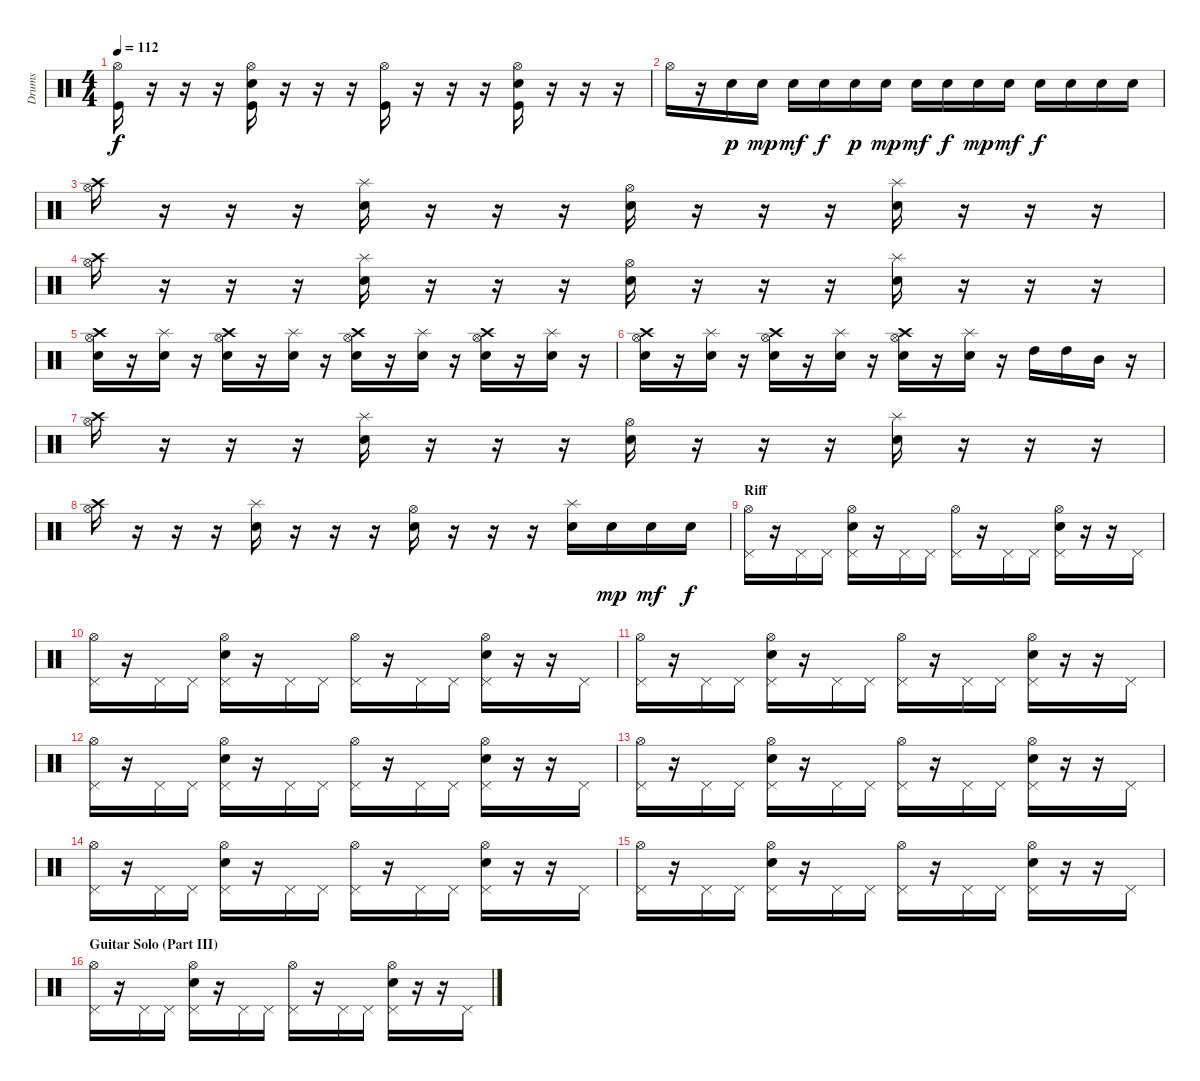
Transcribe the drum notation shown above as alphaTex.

\track ("Drums" "Drums") {instrument percussion}
\staff {score}
\articulation defaults
\ts (4 4)
\tempo 112
\clef neutral
\ks c
("Hi-Hat (open)" "Kick (hit)").16{dy f} r.16 r.16 r.16 ("Hi-Hat (open)" "Electric Snare (hit)" "Kick (hit)").16 r.16 r.16 r.16 ("Hi-Hat (open)" "Kick (hit)").16 r.16 r.16 r.16 ("Hi-Hat (open)" "Electric Snare (hit)" "Kick (hit)").16 r.16 r.16 r.16 |
"Hi-Hat (open)".16 r.16 "Electric Snare (hit)".16{dy p} "Electric Snare (hit)".16{dy mp} "Electric Snare (hit)".16{dy mf} "Electric Snare (hit)".16{dy f} "Electric Snare (hit)".16{dy p} "Electric Snare (hit)".16{dy mp} "Electric Snare (hit)".16{dy mf} "Electric Snare (hit)".16{dy f} "Electric Snare (hit)".16{dy mp} "Electric Snare (hit)".16{dy mf} "Electric Snare (hit)".16{dy f} "Electric Snare (hit)".16 "Electric Snare (hit)".16 "Electric Snare (hit)".16 |
("Hi-Hat (open)" "Crash high (hit)").16 r.16 r.16 r.16 ("Electric Snare (hit)" "Splash (hit)").16 r.16 r.16 r.16 ("Hi-Hat (open)" "Electric Snare (hit)").16 r.16 r.16 r.16 ("Electric Snare (hit)" "Splash (hit)").16 r.16 r.16 r.16 |
("Hi-Hat (open)" "Crash high (hit)").16 r.16 r.16 r.16 ("Electric Snare (hit)" "Splash (hit)").16 r.16 r.16 r.16 ("Hi-Hat (open)" "Electric Snare (hit)").16 r.16 r.16 r.16 ("Electric Snare (hit)" "Splash (hit)").16 r.16 r.16 r.16 |
("Hi-Hat (open)" "Electric Snare (hit)" "Crash high (hit)").16 r.16 ("Electric Snare (hit)" "Splash (hit)").16 r.16 ("Hi-Hat (open)" "Electric Snare (hit)" "Crash high (hit)").16 r.16 ("Electric Snare (hit)" "Splash (hit)").16 r.16 ("Hi-Hat (open)" "Electric Snare (hit)" "Crash high (hit)").16 r.16 ("Electric Snare (hit)" "Splash (hit)").16 r.16 ("Hi-Hat (open)" "Electric Snare (hit)" "Crash high (hit)").16 r.16 ("Electric Snare (hit)" "Splash (hit)").16 r.16 |
("Hi-Hat (open)" "Electric Snare (hit)" "Crash high (hit)").16 r.16 ("Electric Snare (hit)" "Splash (hit)").16 r.16 ("Hi-Hat (open)" "Electric Snare (hit)" "Crash high (hit)").16 r.16 ("Electric Snare (hit)" "Splash (hit)").16 r.16 ("Hi-Hat (open)" "Electric Snare (hit)" "Crash high (hit)").16 r.16 ("Electric Snare (hit)" "Splash (hit)").16 r.16 "High Tom (hit)".16 "High Tom (hit)".16 "Mid Tom (hit)".16 r.16 |
("Hi-Hat (open)" "Crash high (hit)").16 r.16 r.16 r.16 ("Electric Snare (hit)" "Splash (hit)").16 r.16 r.16 r.16 ("Hi-Hat (open)" "Electric Snare (hit)").16 r.16 r.16 r.16 ("Electric Snare (hit)" "Splash (hit)").16 r.16 r.16 r.16 |
("Hi-Hat (open)" "Crash high (hit)").16 r.16 r.16 r.16 ("Electric Snare (hit)" "Splash (hit)").16 r.16 r.16 r.16 ("Hi-Hat (open)" "Electric Snare (hit)").16 r.16 r.16 r.16 ("Electric Snare (hit)" "Splash (hit)").16 "Electric Snare (hit)".16{dy mp} "Electric Snare (hit)".16{dy mf} "Electric Snare (hit)".16{dy f} |
\section ("" "Riff")
("Pedal Hi-Hat (hit)" "Hi-Hat (open)").16 r.16 "Pedal Hi-Hat (hit)".16 "Pedal Hi-Hat (hit)".16 ("Pedal Hi-Hat (hit)" "Hi-Hat (open)" "Electric Snare (hit)").16 r.16 "Pedal Hi-Hat (hit)".16 "Pedal Hi-Hat (hit)".16 ("Pedal Hi-Hat (hit)" "Hi-Hat (open)").16 r.16 "Pedal Hi-Hat (hit)".16 "Pedal Hi-Hat (hit)".16 ("Pedal Hi-Hat (hit)" "Hi-Hat (open)" "Electric Snare (hit)").16 r.16 r.16 "Pedal Hi-Hat (hit)".16 |
("Pedal Hi-Hat (hit)" "Hi-Hat (open)").16 r.16 "Pedal Hi-Hat (hit)".16 "Pedal Hi-Hat (hit)".16 ("Pedal Hi-Hat (hit)" "Hi-Hat (open)" "Electric Snare (hit)").16 r.16 "Pedal Hi-Hat (hit)".16 "Pedal Hi-Hat (hit)".16 ("Pedal Hi-Hat (hit)" "Hi-Hat (open)").16 r.16 "Pedal Hi-Hat (hit)".16 "Pedal Hi-Hat (hit)".16 ("Pedal Hi-Hat (hit)" "Hi-Hat (open)" "Electric Snare (hit)").16 r.16 r.16 "Pedal Hi-Hat (hit)".16 |
("Pedal Hi-Hat (hit)" "Hi-Hat (open)").16 r.16 "Pedal Hi-Hat (hit)".16 "Pedal Hi-Hat (hit)".16 ("Pedal Hi-Hat (hit)" "Hi-Hat (open)" "Electric Snare (hit)").16 r.16 "Pedal Hi-Hat (hit)".16 "Pedal Hi-Hat (hit)".16 ("Pedal Hi-Hat (hit)" "Hi-Hat (open)").16 r.16 "Pedal Hi-Hat (hit)".16 "Pedal Hi-Hat (hit)".16 ("Pedal Hi-Hat (hit)" "Hi-Hat (open)" "Electric Snare (hit)").16 r.16 r.16 "Pedal Hi-Hat (hit)".16 |
("Pedal Hi-Hat (hit)" "Hi-Hat (open)").16 r.16 "Pedal Hi-Hat (hit)".16 "Pedal Hi-Hat (hit)".16 ("Pedal Hi-Hat (hit)" "Hi-Hat (open)" "Electric Snare (hit)").16 r.16 "Pedal Hi-Hat (hit)".16 "Pedal Hi-Hat (hit)".16 ("Pedal Hi-Hat (hit)" "Hi-Hat (open)").16 r.16 "Pedal Hi-Hat (hit)".16 "Pedal Hi-Hat (hit)".16 ("Pedal Hi-Hat (hit)" "Hi-Hat (open)" "Electric Snare (hit)").16 r.16 r.16 "Pedal Hi-Hat (hit)".16 |
("Pedal Hi-Hat (hit)" "Hi-Hat (open)").16 r.16 "Pedal Hi-Hat (hit)".16 "Pedal Hi-Hat (hit)".16 ("Pedal Hi-Hat (hit)" "Hi-Hat (open)" "Electric Snare (hit)").16 r.16 "Pedal Hi-Hat (hit)".16 "Pedal Hi-Hat (hit)".16 ("Pedal Hi-Hat (hit)" "Hi-Hat (open)").16 r.16 "Pedal Hi-Hat (hit)".16 "Pedal Hi-Hat (hit)".16 ("Pedal Hi-Hat (hit)" "Hi-Hat (open)" "Electric Snare (hit)").16 r.16 r.16 "Pedal Hi-Hat (hit)".16 |
("Pedal Hi-Hat (hit)" "Hi-Hat (open)").16 r.16 "Pedal Hi-Hat (hit)".16 "Pedal Hi-Hat (hit)".16 ("Pedal Hi-Hat (hit)" "Hi-Hat (open)" "Electric Snare (hit)").16 r.16 "Pedal Hi-Hat (hit)".16 "Pedal Hi-Hat (hit)".16 ("Pedal Hi-Hat (hit)" "Hi-Hat (open)").16 r.16 "Pedal Hi-Hat (hit)".16 "Pedal Hi-Hat (hit)".16 ("Pedal Hi-Hat (hit)" "Hi-Hat (open)" "Electric Snare (hit)").16 r.16 r.16 "Pedal Hi-Hat (hit)".16 |
("Pedal Hi-Hat (hit)" "Hi-Hat (open)").16 r.16 "Pedal Hi-Hat (hit)".16 "Pedal Hi-Hat (hit)".16 ("Pedal Hi-Hat (hit)" "Hi-Hat (open)" "Electric Snare (hit)").16 r.16 "Pedal Hi-Hat (hit)".16 "Pedal Hi-Hat (hit)".16 ("Pedal Hi-Hat (hit)" "Hi-Hat (open)").16 r.16 "Pedal Hi-Hat (hit)".16 "Pedal Hi-Hat (hit)".16 ("Pedal Hi-Hat (hit)" "Hi-Hat (open)" "Electric Snare (hit)").16 r.16 r.16 "Pedal Hi-Hat (hit)".16 |
\section ("" "Guitar Solo (Part III)")
("Pedal Hi-Hat (hit)" "Hi-Hat (open)").16 r.16 "Pedal Hi-Hat (hit)".16 "Pedal Hi-Hat (hit)".16 ("Pedal Hi-Hat (hit)" "Hi-Hat (open)" "Electric Snare (hit)").16 r.16 "Pedal Hi-Hat (hit)".16 "Pedal Hi-Hat (hit)".16 ("Pedal Hi-Hat (hit)" "Hi-Hat (open)").16 r.16 "Pedal Hi-Hat (hit)".16 "Pedal Hi-Hat (hit)".16 ("Pedal Hi-Hat (hit)" "Hi-Hat (open)" "Electric Snare (hit)").16 r.16 r.16 "Pedal Hi-Hat (hit)".16
